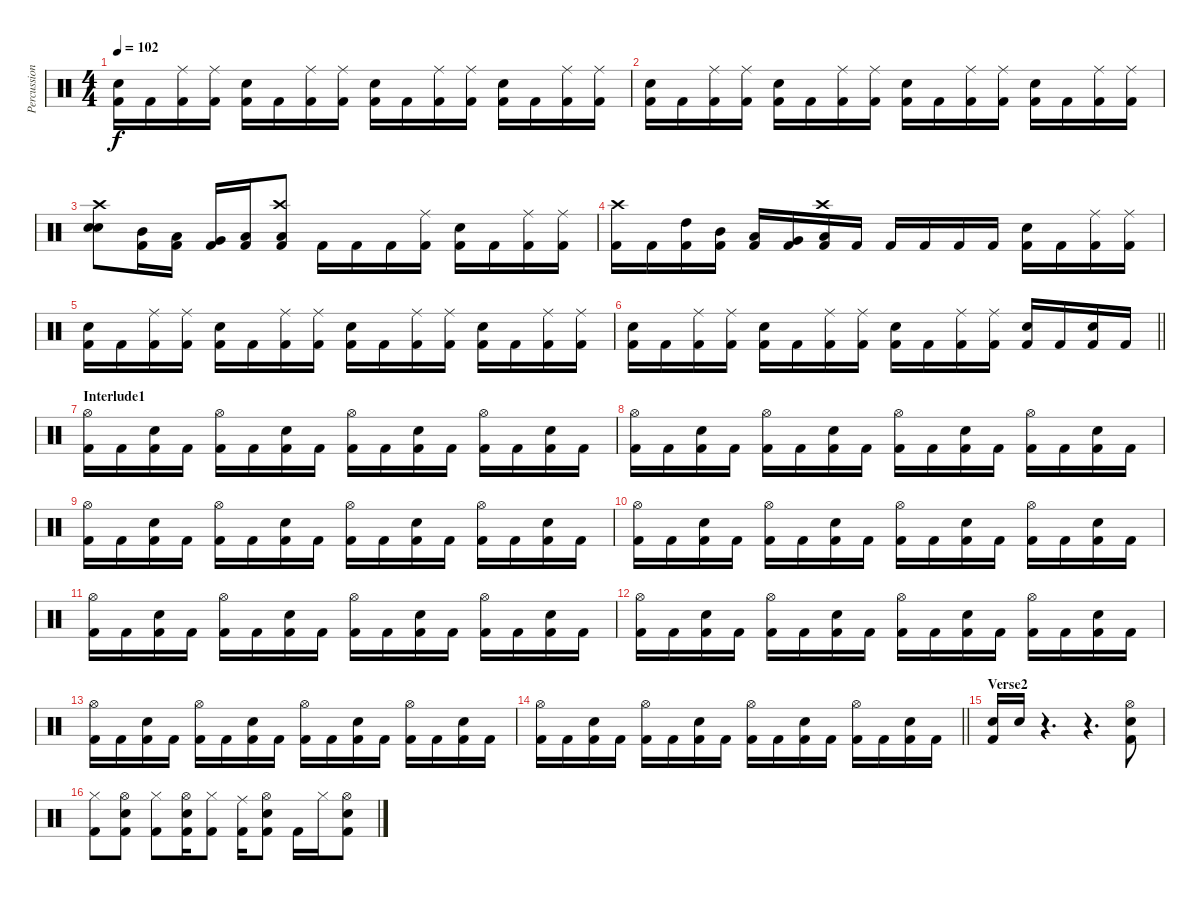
\track ("Percussion" "Percussion") {instrument percussion}
\staff {score}
\articulation defaults
\ts (4 4)
\tempo 102
\clef neutral
\ks c
("Snare (hit) 2" "Kick (hit) 2").16{dy f} "Kick (hit) 2".16 ("Ride (middle)" "Kick (hit) 2").16 ("Ride (middle)" "Kick (hit) 2").16 ("Snare (hit) 2" "Kick (hit) 2").16 "Kick (hit) 2".16 ("Ride (middle)" "Kick (hit) 2").16 ("Ride (middle)" "Kick (hit) 2").16 ("Snare (hit) 2" "Kick (hit) 2").16 "Kick (hit) 2".16 ("Ride (middle)" "Kick (hit) 2").16 ("Ride (middle)" "Kick (hit) 2").16 ("Snare (hit) 2" "Kick (hit) 2").16 "Kick (hit) 2".16 ("Ride (middle)" "Kick (hit) 2").16 ("Ride (middle)" "Kick (hit) 2").16 |
("Snare (hit) 2" "Kick (hit) 2").16 "Kick (hit) 2".16 ("Ride (middle)" "Kick (hit) 2").16 ("Ride (middle)" "Kick (hit) 2").16 ("Snare (hit) 2" "Kick (hit) 2").16 "Kick (hit) 2".16 ("Ride (middle)" "Kick (hit) 2").16 ("Ride (middle)" "Kick (hit) 2").16 ("Snare (hit) 2" "Kick (hit) 2").16 "Kick (hit) 2".16 ("Ride (middle)" "Kick (hit) 2").16 ("Ride (middle)" "Kick (hit) 2").16 ("Snare (hit) 2" "Kick (hit) 2").16 "Kick (hit) 2".16 ("Ride (middle)" "Kick (hit) 2").16 ("Ride (middle)" "Kick (hit) 2").16 |
("Crash high (hit)" "Snare (hit) 2" "Snare (hit) 2").8 ("Mid Tom (hit)" "Kick (hit) 2").16 ("Low Tom (hit)" "Kick (hit) 2").16 ("Very Low Tom (hit)" "Kick (hit) 2").16 ("Low Floor Tom (hit)" "Kick (hit) 2").16 ("Crash high (hit)" "Low Floor Tom (hit)" "Kick (hit) 2").8 "Kick (hit) 2".16 "Kick (hit) 2".16 "Kick (hit) 2".16 ("Ride (middle)" "Kick (hit) 2").16 ("Snare (hit) 2" "Kick (hit) 2").16 "Kick (hit) 2".16 ("Ride (middle)" "Kick (hit) 2").16 ("Ride (middle)" "Kick (hit) 2").16 |
("Crash high (hit)" "Kick (hit) 2").16 "Kick (hit) 2".16 ("High Tom (hit)" "Kick (hit) 2").16 ("Mid Tom (hit)" "Kick (hit) 2").16 ("Low Tom (hit)" "Kick (hit) 2").16 ("Very Low Tom (hit)" "Kick (hit) 2").16 ("Crash high (hit)" "Low Floor Tom (hit)" "Kick (hit) 2").16 "Kick (hit) 2".16 "Kick (hit) 2".16 "Kick (hit) 2".16 "Kick (hit) 2".16 "Kick (hit) 2".16 ("Snare (hit) 2" "Kick (hit) 2").16 "Kick (hit) 2".16 ("Ride (middle)" "Kick (hit) 2").16 ("Ride (middle)" "Kick (hit) 2").16 |
("Snare (hit) 2" "Kick (hit) 2").16 "Kick (hit) 2".16 ("Ride (middle)" "Kick (hit) 2").16 ("Ride (middle)" "Kick (hit) 2").16 ("Snare (hit) 2" "Kick (hit) 2").16 "Kick (hit) 2".16 ("Ride (middle)" "Kick (hit) 2").16 ("Ride (middle)" "Kick (hit) 2").16 ("Snare (hit) 2" "Kick (hit) 2").16 "Kick (hit) 2".16 ("Ride (middle)" "Kick (hit) 2").16 ("Ride (middle)" "Kick (hit) 2").16 ("Snare (hit) 2" "Kick (hit) 2").16 "Kick (hit) 2".16 ("Ride (middle)" "Kick (hit) 2").16 ("Ride (middle)" "Kick (hit) 2").16 |
\barLineRight lightlight
("Snare (hit) 2" "Kick (hit) 2").16 "Kick (hit) 2".16 ("Ride (middle)" "Kick (hit) 2").16 ("Ride (middle)" "Kick (hit) 2").16 ("Snare (hit) 2" "Kick (hit) 2").16 "Kick (hit) 2".16 ("Ride (middle)" "Kick (hit) 2").16 ("Ride (middle)" "Kick (hit) 2").16 ("Snare (hit) 2" "Kick (hit) 2").16 "Kick (hit) 2".16 ("Ride (middle)" "Kick (hit) 2").16 ("Ride (middle)" "Kick (hit) 2").16 ("Snare (hit) 2" "Kick (hit) 2").16 "Kick (hit) 2".16 ("Snare (hit) 2" "Kick (hit) 2").16 "Kick (hit) 2".16 |
\section ("" "Interlude1")
("Hi-Hat (open)" "Kick (hit) 2").16 "Kick (hit) 2".16 ("Snare (hit) 2" "Kick (hit) 2").16 "Kick (hit) 2".16 ("Hi-Hat (open)" "Kick (hit) 2").16 "Kick (hit) 2".16 ("Snare (hit) 2" "Kick (hit) 2").16 "Kick (hit) 2".16 ("Hi-Hat (open)" "Kick (hit) 2").16 "Kick (hit) 2".16 ("Snare (hit) 2" "Kick (hit) 2").16 "Kick (hit) 2".16 ("Hi-Hat (open)" "Kick (hit) 2").16 "Kick (hit) 2".16 ("Snare (hit) 2" "Kick (hit) 2").16 "Kick (hit) 2".16 |
("Hi-Hat (open)" "Kick (hit) 2").16 "Kick (hit) 2".16 ("Snare (hit) 2" "Kick (hit) 2").16 "Kick (hit) 2".16 ("Hi-Hat (open)" "Kick (hit) 2").16 "Kick (hit) 2".16 ("Snare (hit) 2" "Kick (hit) 2").16 "Kick (hit) 2".16 ("Hi-Hat (open)" "Kick (hit) 2").16 "Kick (hit) 2".16 ("Snare (hit) 2" "Kick (hit) 2").16 "Kick (hit) 2".16 ("Hi-Hat (open)" "Kick (hit) 2").16 "Kick (hit) 2".16 ("Snare (hit) 2" "Kick (hit) 2").16 "Kick (hit) 2".16 |
("Hi-Hat (open)" "Kick (hit) 2").16 "Kick (hit) 2".16 ("Snare (hit) 2" "Kick (hit) 2").16 "Kick (hit) 2".16 ("Hi-Hat (open)" "Kick (hit) 2").16 "Kick (hit) 2".16 ("Snare (hit) 2" "Kick (hit) 2").16 "Kick (hit) 2".16 ("Hi-Hat (open)" "Kick (hit) 2").16 "Kick (hit) 2".16 ("Snare (hit) 2" "Kick (hit) 2").16 "Kick (hit) 2".16 ("Hi-Hat (open)" "Kick (hit) 2").16 "Kick (hit) 2".16 ("Snare (hit) 2" "Kick (hit) 2").16 "Kick (hit) 2".16 |
("Hi-Hat (open)" "Kick (hit) 2").16 "Kick (hit) 2".16 ("Snare (hit) 2" "Kick (hit) 2").16 "Kick (hit) 2".16 ("Hi-Hat (open)" "Kick (hit) 2").16 "Kick (hit) 2".16 ("Snare (hit) 2" "Kick (hit) 2").16 "Kick (hit) 2".16 ("Hi-Hat (open)" "Kick (hit) 2").16 "Kick (hit) 2".16 ("Snare (hit) 2" "Kick (hit) 2").16 "Kick (hit) 2".16 ("Hi-Hat (open)" "Kick (hit) 2").16 "Kick (hit) 2".16 ("Snare (hit) 2" "Kick (hit) 2").16 "Kick (hit) 2".16 |
("Hi-Hat (open)" "Kick (hit) 2").16 "Kick (hit) 2".16 ("Snare (hit) 2" "Kick (hit) 2").16 "Kick (hit) 2".16 ("Hi-Hat (open)" "Kick (hit) 2").16 "Kick (hit) 2".16 ("Snare (hit) 2" "Kick (hit) 2").16 "Kick (hit) 2".16 ("Hi-Hat (open)" "Kick (hit) 2").16 "Kick (hit) 2".16 ("Snare (hit) 2" "Kick (hit) 2").16 "Kick (hit) 2".16 ("Hi-Hat (open)" "Kick (hit) 2").16 "Kick (hit) 2".16 ("Snare (hit) 2" "Kick (hit) 2").16 "Kick (hit) 2".16 |
("Hi-Hat (open)" "Kick (hit) 2").16 "Kick (hit) 2".16 ("Snare (hit) 2" "Kick (hit) 2").16 "Kick (hit) 2".16 ("Hi-Hat (open)" "Kick (hit) 2").16 "Kick (hit) 2".16 ("Snare (hit) 2" "Kick (hit) 2").16 "Kick (hit) 2".16 ("Hi-Hat (open)" "Kick (hit) 2").16 "Kick (hit) 2".16 ("Snare (hit) 2" "Kick (hit) 2").16 "Kick (hit) 2".16 ("Hi-Hat (open)" "Kick (hit) 2").16 "Kick (hit) 2".16 ("Snare (hit) 2" "Kick (hit) 2").16 "Kick (hit) 2".16 |
("Hi-Hat (open)" "Kick (hit) 2").16 "Kick (hit) 2".16 ("Snare (hit) 2" "Kick (hit) 2").16 "Kick (hit) 2".16 ("Hi-Hat (open)" "Kick (hit) 2").16 "Kick (hit) 2".16 ("Snare (hit) 2" "Kick (hit) 2").16 "Kick (hit) 2".16 ("Hi-Hat (open)" "Kick (hit) 2").16 "Kick (hit) 2".16 ("Snare (hit) 2" "Kick (hit) 2").16 "Kick (hit) 2".16 ("Hi-Hat (open)" "Kick (hit) 2").16 "Kick (hit) 2".16 ("Snare (hit) 2" "Kick (hit) 2").16 "Kick (hit) 2".16 |
\barLineRight lightlight
("Hi-Hat (open)" "Kick (hit) 2").16 "Kick (hit) 2".16 ("Snare (hit) 2" "Kick (hit) 2").16 "Kick (hit) 2".16 ("Hi-Hat (open)" "Kick (hit) 2").16 "Kick (hit) 2".16 ("Snare (hit) 2" "Kick (hit) 2").16 "Kick (hit) 2".16 ("Hi-Hat (open)" "Kick (hit) 2").16 "Kick (hit) 2".16 ("Snare (hit) 2" "Kick (hit) 2").16 "Kick (hit) 2".16 ("Hi-Hat (open)" "Kick (hit) 2").16 "Kick (hit) 2".16 ("Snare (hit) 2" "Kick (hit) 2").16 "Kick (hit) 2".16 |
\section ("" "Verse2")
("Snare (hit) 2" "Kick (hit) 2").16 "Snare (hit) 2".16 r.4{d} r.4{d} ("Hi-Hat (open)" "Snare (hit) 2" "Kick (hit) 2").8 |
("Hi-Hat (closed)" "Kick (hit) 2").8 ("Hi-Hat (open)" "Snare (hit) 2" "Kick (hit) 2").8 ("Hi-Hat (closed)" "Kick (hit) 2").8 ("Hi-Hat (open)" "Snare (hit) 2" "Kick (hit) 2").16 ("Hi-Hat (closed)" "Kick (hit) 2").8 ("Ride (middle)" "Kick (hit) 2").16 ("Hi-Hat (open)" "Snare (hit) 2" "Kick (hit) 2").8 "Kick (hit) 2".16 "Hi-Hat (closed)".16 ("Hi-Hat (open)" "Snare (hit) 2" "Kick (hit) 2").8
